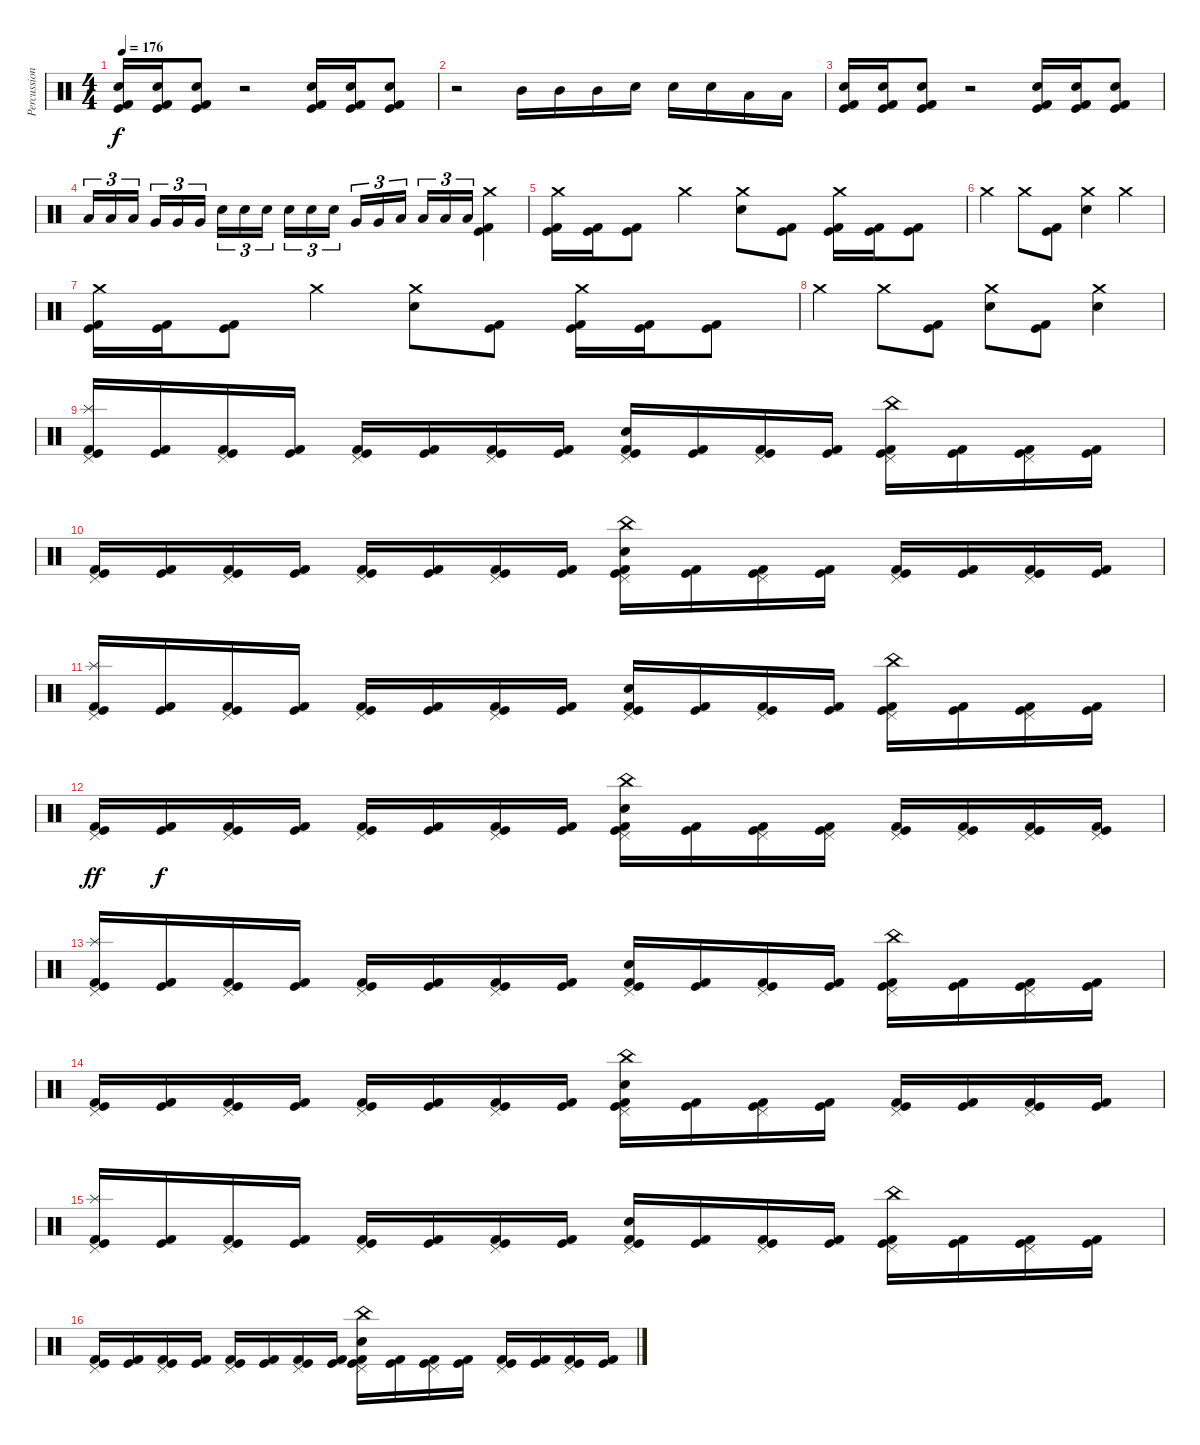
\track ("Percussions" "Percussion") {instrument percussion}
\staff {score}
\articulation defaults
\ts (4 4)
\tempo 176
\clef neutral
\ks c
("Electric Snare (hit)" "Kick (hit)" "Kick (hit) 2").16{dy f} ("Electric Snare (hit)" "Kick (hit)" "Kick (hit) 2").16 ("Electric Snare (hit)" "Kick (hit)" "Kick (hit) 2").8 r.2 ("Electric Snare (hit)" "Kick (hit)" "Kick (hit) 2").16 ("Electric Snare (hit)" "Kick (hit)" "Kick (hit) 2").16 ("Electric Snare (hit)" "Kick (hit)" "Kick (hit) 2").8 |
r.2 "Mid Tom (hit)".16 "Mid Tom (hit)".16 "Mid Tom (hit)".16 "Electric Snare (hit)".16 "Electric Snare (hit)".16 "Electric Snare (hit)".16 "Low Tom (hit)".16 "Low Tom (hit)".16 |
("Electric Snare (hit)" "Kick (hit)" "Kick (hit) 2").16 ("Electric Snare (hit)" "Kick (hit)" "Kick (hit) 2").16 ("Electric Snare (hit)" "Kick (hit)" "Kick (hit) 2").8 r.2 ("Electric Snare (hit)" "Kick (hit)" "Kick (hit) 2").16 ("Electric Snare (hit)" "Kick (hit)" "Kick (hit) 2").16 ("Electric Snare (hit)" "Kick (hit)" "Kick (hit) 2").8 |
"Low Tom (hit)".16{tu (3 2)} "Low Tom (hit)".16{tu (3 2)} "Low Tom (hit)".16{tu (3 2) beam splitsecondary} "Very Low Tom (hit)".16{tu (3 2)} "Very Low Tom (hit)".16{tu (3 2)} "Very Low Tom (hit)".16{tu (3 2)} "Electric Snare (hit)".16{tu (3 2)} "Electric Snare (hit)".16{tu (3 2)} "Electric Snare (hit)".16{tu (3 2) beam splitsecondary} "Electric Snare (hit)".16{tu (3 2)} "Electric Snare (hit)".16{tu (3 2)} "Electric Snare (hit)".16{tu (3 2)} "Very Low Tom (hit)".16{tu (3 2)} "Very Low Tom (hit)".16{tu (3 2)} "Low Tom (hit)".16{tu (3 2) beam splitsecondary} "Low Floor Tom (hit)".16{tu (3 2)} "Low Floor Tom (hit)".16{tu (3 2)} "Low Floor Tom (hit)".16{tu (3 2)} ("Crash medium (hit)" "Kick (hit)" "Kick (hit) 2").4 |
("Crash medium (hit)" "Kick (hit)" "Kick (hit) 2").16 ("Kick (hit)" "Kick (hit) 2").16 ("Kick (hit)" "Kick (hit) 2").8 "Crash medium (hit)".4 ("Crash medium (hit)" "Electric Snare (hit)").8 ("Kick (hit)" "Kick (hit) 2").8 ("Crash medium (hit)" "Kick (hit)" "Kick (hit) 2").16 ("Kick (hit)" "Kick (hit) 2").16 ("Kick (hit)" "Kick (hit) 2").8 |
"Crash medium (hit)".4 "Crash medium (hit)".8 ("Kick (hit)" "Kick (hit) 2").8 ("Crash medium (hit)" "Electric Snare (hit)").4 "Crash medium (hit)".4 |
("Crash medium (hit)" "Kick (hit)" "Kick (hit) 2").16 ("Kick (hit)" "Kick (hit) 2").16 ("Kick (hit)" "Kick (hit) 2").8 "Crash medium (hit)".4 ("Crash medium (hit)" "Electric Snare (hit)").8 ("Kick (hit)" "Kick (hit) 2").8 ("Crash medium (hit)" "Kick (hit)" "Kick (hit) 2").16 ("Kick (hit)" "Kick (hit) 2").16 ("Kick (hit)" "Kick (hit) 2").8 |
"Crash medium (hit)".4 "Crash medium (hit)".8 ("Kick (hit)" "Kick (hit) 2").8 ("Crash medium (hit)" "Electric Snare (hit)").8 ("Kick (hit)" "Kick (hit) 2").8 ("Crash medium (hit)" "Electric Snare (hit)").4 |
("Splash (hit)" "Pedal Hi-Hat (hit)" "Kick (hit)" "Kick (hit) 2").16 ("Kick (hit)" "Kick (hit) 2").16 ("Pedal Hi-Hat (hit)" "Kick (hit)" "Kick (hit) 2").16 ("Kick (hit)" "Kick (hit) 2").16 ("Pedal Hi-Hat (hit)" "Kick (hit)" "Kick (hit) 2").16 ("Kick (hit)" "Kick (hit) 2").16 ("Pedal Hi-Hat (hit)" "Kick (hit)" "Kick (hit) 2").16 ("Kick (hit)" "Kick (hit) 2").16 ("Pedal Hi-Hat (hit)" "Electric Snare (hit)" "Kick (hit)" "Kick (hit) 2").16 ("Kick (hit)" "Kick (hit) 2").16 ("Pedal Hi-Hat (hit)" "Kick (hit)" "Kick (hit) 2").16 ("Kick (hit)" "Kick (hit) 2").16 ("China (hit)" "Pedal Hi-Hat (hit)" "Kick (hit)" "Kick (hit) 2").16 ("Kick (hit)" "Kick (hit) 2").16 ("Pedal Hi-Hat (hit)" "Kick (hit)" "Kick (hit) 2").16 ("Kick (hit)" "Kick (hit) 2").16 |
("Pedal Hi-Hat (hit)" "Kick (hit)" "Kick (hit) 2").16 ("Kick (hit)" "Kick (hit) 2").16 ("Pedal Hi-Hat (hit)" "Kick (hit)" "Kick (hit) 2").16 ("Kick (hit)" "Kick (hit) 2").16 ("Pedal Hi-Hat (hit)" "Kick (hit)" "Kick (hit) 2").16 ("Kick (hit)" "Kick (hit) 2").16 ("Pedal Hi-Hat (hit)" "Kick (hit)" "Kick (hit) 2").16 ("Kick (hit)" "Kick (hit) 2").16 ("China (hit)" "Pedal Hi-Hat (hit)" "Electric Snare (hit)" "Kick (hit)" "Kick (hit) 2").16 ("Kick (hit)" "Kick (hit) 2").16 ("Pedal Hi-Hat (hit)" "Kick (hit)" "Kick (hit) 2").16 ("Kick (hit)" "Kick (hit) 2").16 ("Pedal Hi-Hat (hit)" "Kick (hit)" "Kick (hit) 2").16 ("Kick (hit)" "Kick (hit) 2").16 ("Pedal Hi-Hat (hit)" "Kick (hit)" "Kick (hit) 2").16 ("Kick (hit)" "Kick (hit) 2").16 |
("Splash (hit)" "Pedal Hi-Hat (hit)" "Kick (hit)" "Kick (hit) 2").16 ("Kick (hit)" "Kick (hit) 2").16 ("Pedal Hi-Hat (hit)" "Kick (hit)" "Kick (hit) 2").16 ("Kick (hit)" "Kick (hit) 2").16 ("Pedal Hi-Hat (hit)" "Kick (hit)" "Kick (hit) 2").16 ("Kick (hit)" "Kick (hit) 2").16 ("Pedal Hi-Hat (hit)" "Kick (hit)" "Kick (hit) 2").16 ("Kick (hit)" "Kick (hit) 2").16 ("Pedal Hi-Hat (hit)" "Electric Snare (hit)" "Kick (hit)" "Kick (hit) 2").16 ("Kick (hit)" "Kick (hit) 2").16 ("Pedal Hi-Hat (hit)" "Kick (hit)" "Kick (hit) 2").16 ("Kick (hit)" "Kick (hit) 2").16 ("China (hit)" "Pedal Hi-Hat (hit)" "Kick (hit)" "Kick (hit) 2").16 ("Kick (hit)" "Kick (hit) 2").16 ("Pedal Hi-Hat (hit)" "Kick (hit)" "Kick (hit) 2").16 ("Kick (hit)" "Kick (hit) 2").16 |
("Pedal Hi-Hat (hit)" "Kick (hit)" "Kick (hit) 2").16{dy ff} ("Kick (hit)" "Kick (hit) 2").16{dy f} ("Pedal Hi-Hat (hit)" "Kick (hit)" "Kick (hit) 2").16 ("Kick (hit)" "Kick (hit) 2").16 ("Pedal Hi-Hat (hit)" "Kick (hit)" "Kick (hit) 2").16 ("Kick (hit)" "Kick (hit) 2").16 ("Pedal Hi-Hat (hit)" "Kick (hit)" "Kick (hit) 2").16 ("Kick (hit)" "Kick (hit) 2").16 ("China (hit)" "Pedal Hi-Hat (hit)" "Electric Snare (hit)" "Kick (hit)" "Kick (hit) 2").16 ("Kick (hit)" "Kick (hit) 2").16 ("Pedal Hi-Hat (hit)" "Kick (hit)" "Kick (hit) 2").16 ("Pedal Hi-Hat (hit)" "Kick (hit)" "Kick (hit) 2").16 ("Pedal Hi-Hat (hit)" "Kick (hit)" "Kick (hit) 2").16 ("Pedal Hi-Hat (hit)" "Kick (hit)" "Kick (hit) 2").16 ("Pedal Hi-Hat (hit)" "Kick (hit)" "Kick (hit) 2").16 ("Pedal Hi-Hat (hit)" "Kick (hit)" "Kick (hit) 2").16 |
("Splash (hit)" "Pedal Hi-Hat (hit)" "Kick (hit)" "Kick (hit) 2").16 ("Kick (hit)" "Kick (hit) 2").16 ("Pedal Hi-Hat (hit)" "Kick (hit)" "Kick (hit) 2").16 ("Kick (hit)" "Kick (hit) 2").16 ("Pedal Hi-Hat (hit)" "Kick (hit)" "Kick (hit) 2").16 ("Kick (hit)" "Kick (hit) 2").16 ("Pedal Hi-Hat (hit)" "Kick (hit)" "Kick (hit) 2").16 ("Kick (hit)" "Kick (hit) 2").16 ("Pedal Hi-Hat (hit)" "Electric Snare (hit)" "Kick (hit)" "Kick (hit) 2").16 ("Kick (hit)" "Kick (hit) 2").16 ("Pedal Hi-Hat (hit)" "Kick (hit)" "Kick (hit) 2").16 ("Kick (hit)" "Kick (hit) 2").16 ("China (hit)" "Pedal Hi-Hat (hit)" "Kick (hit)" "Kick (hit) 2").16 ("Kick (hit)" "Kick (hit) 2").16 ("Pedal Hi-Hat (hit)" "Kick (hit)" "Kick (hit) 2").16 ("Kick (hit)" "Kick (hit) 2").16 |
("Pedal Hi-Hat (hit)" "Kick (hit)" "Kick (hit) 2").16 ("Kick (hit)" "Kick (hit) 2").16 ("Pedal Hi-Hat (hit)" "Kick (hit)" "Kick (hit) 2").16 ("Kick (hit)" "Kick (hit) 2").16 ("Pedal Hi-Hat (hit)" "Kick (hit)" "Kick (hit) 2").16 ("Kick (hit)" "Kick (hit) 2").16 ("Pedal Hi-Hat (hit)" "Kick (hit)" "Kick (hit) 2").16 ("Kick (hit)" "Kick (hit) 2").16 ("China (hit)" "Pedal Hi-Hat (hit)" "Electric Snare (hit)" "Kick (hit)" "Kick (hit) 2").16 ("Kick (hit)" "Kick (hit) 2").16 ("Pedal Hi-Hat (hit)" "Kick (hit)" "Kick (hit) 2").16 ("Kick (hit)" "Kick (hit) 2").16 ("Pedal Hi-Hat (hit)" "Kick (hit)" "Kick (hit) 2").16 ("Kick (hit)" "Kick (hit) 2").16 ("Pedal Hi-Hat (hit)" "Kick (hit)" "Kick (hit) 2").16 ("Kick (hit)" "Kick (hit) 2").16 |
("Splash (hit)" "Pedal Hi-Hat (hit)" "Kick (hit)" "Kick (hit) 2").16 ("Kick (hit)" "Kick (hit) 2").16 ("Pedal Hi-Hat (hit)" "Kick (hit)" "Kick (hit) 2").16 ("Kick (hit)" "Kick (hit) 2").16 ("Pedal Hi-Hat (hit)" "Kick (hit)" "Kick (hit) 2").16 ("Kick (hit)" "Kick (hit) 2").16 ("Pedal Hi-Hat (hit)" "Kick (hit)" "Kick (hit) 2").16 ("Kick (hit)" "Kick (hit) 2").16 ("Pedal Hi-Hat (hit)" "Electric Snare (hit)" "Kick (hit)" "Kick (hit) 2").16 ("Kick (hit)" "Kick (hit) 2").16 ("Pedal Hi-Hat (hit)" "Kick (hit)" "Kick (hit) 2").16 ("Kick (hit)" "Kick (hit) 2").16 ("China (hit)" "Pedal Hi-Hat (hit)" "Kick (hit)" "Kick (hit) 2").16 ("Kick (hit)" "Kick (hit) 2").16 ("Pedal Hi-Hat (hit)" "Kick (hit)" "Kick (hit) 2").16 ("Kick (hit)" "Kick (hit) 2").16 |
("Pedal Hi-Hat (hit)" "Kick (hit)" "Kick (hit) 2").16 ("Kick (hit)" "Kick (hit) 2").16 ("Pedal Hi-Hat (hit)" "Kick (hit)" "Kick (hit) 2").16 ("Kick (hit)" "Kick (hit) 2").16 ("Pedal Hi-Hat (hit)" "Kick (hit)" "Kick (hit) 2").16 ("Kick (hit)" "Kick (hit) 2").16 ("Pedal Hi-Hat (hit)" "Kick (hit)" "Kick (hit) 2").16 ("Kick (hit)" "Kick (hit) 2").16 ("China (hit)" "Pedal Hi-Hat (hit)" "Electric Snare (hit)" "Kick (hit)" "Kick (hit) 2").16 ("Kick (hit)" "Kick (hit) 2").16 ("Pedal Hi-Hat (hit)" "Kick (hit)" "Kick (hit) 2").16 ("Kick (hit)" "Kick (hit) 2").16 ("Pedal Hi-Hat (hit)" "Kick (hit)" "Kick (hit) 2").16 ("Kick (hit)" "Kick (hit) 2").16 ("Pedal Hi-Hat (hit)" "Kick (hit)" "Kick (hit) 2").16 ("Kick (hit)" "Kick (hit) 2").16
